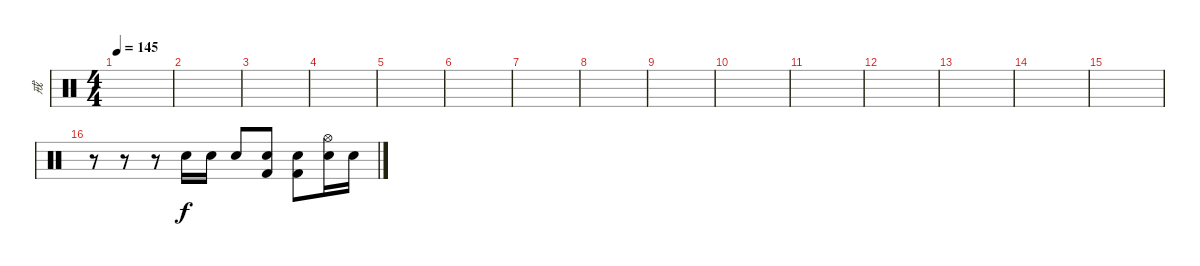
\track ("戒" "戒") {instrument percussion}
\staff {score}
\articulation defaults
\ts (4 4)
\tempo 145
\clef neutral
\ks c
|
|
|
|
|
|
|
|
|
|
|
|
|
|
|
r.8 r.8 r.8 "Electric Snare (hit)".16 "Electric Snare (hit)".16 "Electric Snare (hit)".8 ("Electric Snare (hit)" "Kick (hit) 2").8 ("Electric Snare (hit)" "Kick (hit) 2").8 ("Electric Snare (hit)" "Hi-Hat (open)").16 "Electric Snare (hit)".16
